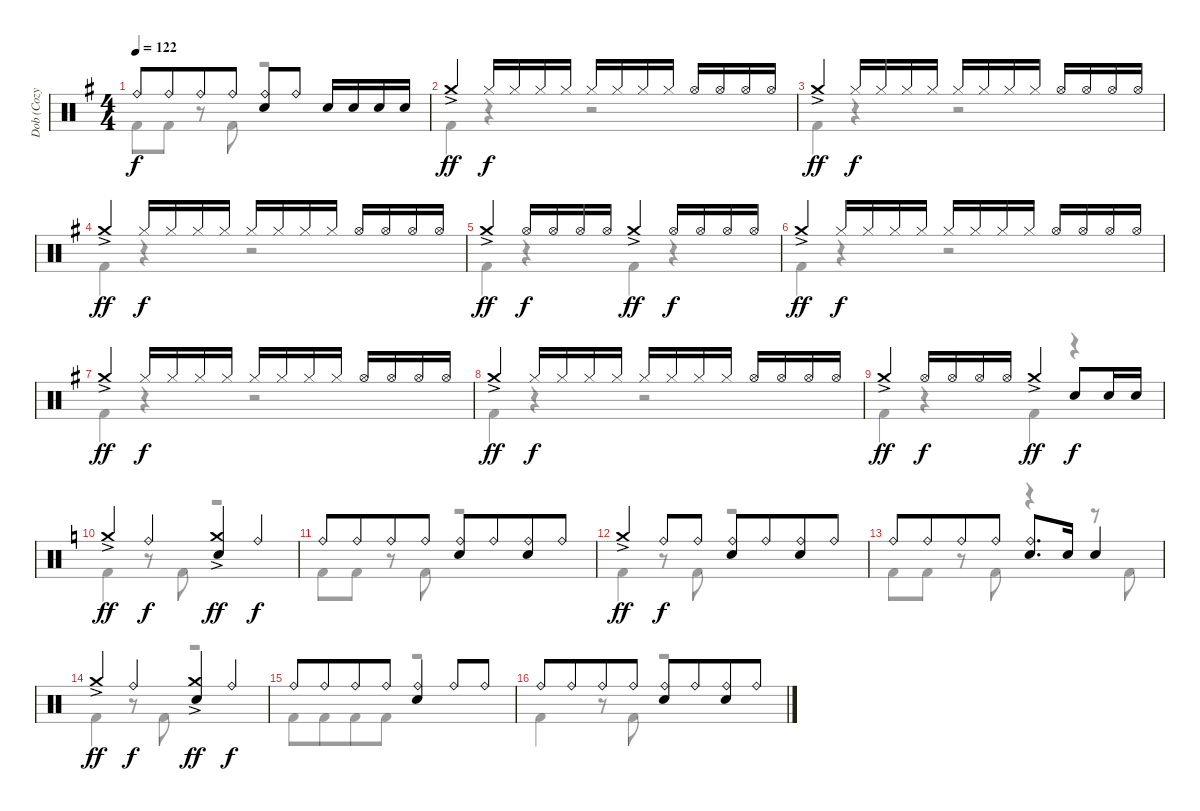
\track ("Dob (Cozy Powell)" "Dob (Cozy ") {instrument percussion}
\staff {score}
\articulation defaults
\voice
\ts (4 4)
\tempo 122
\clef neutral
\ks g "Ride (bell)".8{dy f} "Ride (bell)".8{beam merge} "Ride (bell)".8 "Ride (bell)".8
("Ride (bell)" "Electric Snare (hit)").8 "Ride (bell)".8 "Electric Snare (hit)".16 "Electric Snare (hit)".16 "Electric Snare (hit)".16 "Electric Snare (hit)".16 |
"Crash medium (hit)"{ac}.4{dy ff volume 8} "Hi-Hat (closed)".16{dy f} "Hi-Hat (closed)".16 "Hi-Hat (closed)".16 "Hi-Hat (closed)".16 "Hi-Hat (closed)".16 "Hi-Hat (closed)".16 "Hi-Hat (closed)".16 "Hi-Hat (closed)".16 "Hi-Hat (open)".16 "Hi-Hat (open)".16 "Hi-Hat (open)".16 "Hi-Hat (open)".16 |
"Crash medium (hit)"{ac}.4{dy ff} "Hi-Hat (closed)".16{dy f} "Hi-Hat (closed)".16 "Hi-Hat (closed)".16 "Hi-Hat (closed)".16 "Hi-Hat (closed)".16 "Hi-Hat (closed)".16 "Hi-Hat (closed)".16 "Hi-Hat (closed)".16 "Hi-Hat (open)".16 "Hi-Hat (open)".16 "Hi-Hat (open)".16 "Hi-Hat (open)".16 |
"Crash medium (hit)"{ac}.4{dy ff} "Hi-Hat (closed)".16{dy f} "Hi-Hat (closed)".16 "Hi-Hat (closed)".16 "Hi-Hat (closed)".16 "Hi-Hat (closed)".16 "Hi-Hat (closed)".16 "Hi-Hat (closed)".16 "Hi-Hat (closed)".16 "Hi-Hat (open)".16 "Hi-Hat (open)".16 "Hi-Hat (open)".16 "Hi-Hat (open)".16 |
"Crash medium (hit)"{ac}.4{dy ff} "Hi-Hat (open)".16{dy f} "Hi-Hat (open)".16 "Hi-Hat (open)".16 "Hi-Hat (open)".16 "Crash medium (hit)"{ac}.4{dy ff} "Hi-Hat (open)".16{dy f} "Hi-Hat (open)".16 "Hi-Hat (open)".16 "Hi-Hat (open)".16 |
"Crash medium (hit)"{ac}.4{dy ff} "Hi-Hat (closed)".16{dy f} "Hi-Hat (closed)".16 "Hi-Hat (closed)".16 "Hi-Hat (closed)".16 "Hi-Hat (closed)".16 "Hi-Hat (closed)".16 "Hi-Hat (closed)".16 "Hi-Hat (closed)".16 "Hi-Hat (open)".16 "Hi-Hat (open)".16 "Hi-Hat (open)".16 "Hi-Hat (open)".16 |
"Crash medium (hit)"{ac}.4{dy ff} "Hi-Hat (closed)".16{dy f} "Hi-Hat (closed)".16 "Hi-Hat (closed)".16 "Hi-Hat (closed)".16 "Hi-Hat (closed)".16 "Hi-Hat (closed)".16 "Hi-Hat (closed)".16 "Hi-Hat (closed)".16 "Hi-Hat (open)".16 "Hi-Hat (open)".16 "Hi-Hat (open)".16 "Hi-Hat (open)".16 |
"Crash medium (hit)"{ac}.4{dy ff} "Hi-Hat (closed)".16{dy f} "Hi-Hat (closed)".16 "Hi-Hat (closed)".16 "Hi-Hat (closed)".16 "Hi-Hat (closed)".16 "Hi-Hat (closed)".16 "Hi-Hat (closed)".16 "Hi-Hat (closed)".16 "Hi-Hat (open)".16 "Hi-Hat (open)".16 "Hi-Hat (open)".16 "Hi-Hat (open)".16 |
"Crash medium (hit)"{ac}.4{dy ff} "Hi-Hat (open)".16{dy f} "Hi-Hat (open)".16 "Hi-Hat (open)".16 "Hi-Hat (open)".16 "Crash medium (hit)"{ac}.4{dy ff} "Electric Snare (hit)".8{dy f} "Electric Snare (hit)".16 "Electric Snare (hit)".16 |
\ks c "Crash medium (hit)"{ac}.4{dy ff} "Ride (bell)".4{dy f}
("Crash medium (hit)"{ac} "Electric Snare (hit)").4{dy ff} "Ride (bell)".4{dy f} |
"Ride (bell)".8 "Ride (bell)".8{beam merge} "Ride (bell)".8 "Ride (bell)".8 ("Ride (bell)" "Electric Snare (hit)").8 "Ride (bell)".8{beam merge} ("Ride (bell)" "Electric Snare (hit)").8 "Ride (bell)".8 |
"Crash medium (hit)"{ac}.4{dy ff} "Ride (bell)".8{dy f} "Ride (bell)".8 ("Ride (bell)" "Electric Snare (hit)").8 "Ride (bell)".8{beam merge} ("Ride (bell)" "Electric Snare (hit)").8 "Ride (bell)".8 |
"Ride (bell)".8 "Ride (bell)".8{beam merge} "Ride (bell)".8 "Ride (bell)".8 ("Ride (bell)" "Electric Snare (hit)").8{d} "Electric Snare (hit)".16 "Electric Snare (hit)".4 |
"Crash medium (hit)"{ac}.4{dy ff} "Ride (bell)".4{dy f} ("Crash medium (hit)"{ac} "Electric Snare (hit)").4{dy ff} "Ride (bell)".4{dy f} |
"Ride (bell)".8 "Ride (bell)".8{beam merge} "Ride (bell)".8 "Ride (bell)".8 ("Ride (bell)" "Electric Snare (hit)").4 "Ride (bell)".8 "Ride (bell)".8 |
"Ride (bell)".8 "Ride (bell)".8{beam merge} "Ride (bell)".8 "Ride (bell)".8 ("Ride (bell)" "Electric Snare (hit)").8 "Ride (bell)".8{beam merge} ("Ride (bell)" "Electric Snare (hit)").8 "Ride (bell)".8
\voice
\clef neutral
\ottava regular
\simile none
\ks g "Kick (hit) 2".8{dy f} "Kick (hit) 2".8
r.8 "Kick (hit) 2".8 r.2 |
"Kick (hit) 2".4 r.4 r.2 |
"Kick (hit) 2".4 r.4 r.2 |
"Kick (hit) 2".4 r.4 r.2 |
"Kick (hit) 2".4 r.4 "Kick (hit) 2".4 r.4 |
"Kick (hit) 2".4 r.4 r.2 |
"Kick (hit) 2".4 r.4 r.2 |
"Kick (hit) 2".4 r.4 r.2 |
"Kick (hit) 2".4 r.4 "Kick (hit) 2".4 r.4 |
\ks c "Kick (hit) 2".4
r.8 "Kick (hit) 2".8 r.2 |
"Kick (hit) 2".8 "Kick (hit) 2".8 r.8 "Kick (hit) 2".8 r.2 |
"Kick (hit) 2".4 r.8 "Kick (hit) 2".8 r.2 |
"Kick (hit) 2".8 "Kick (hit) 2".8 r.8 "Kick (hit) 2".8 r.4 r.8 "Kick (hit) 2".8 |
"Kick (hit) 2".4 r.8 "Kick (hit) 2".8 r.2 |
"Kick (hit) 2".8 "Kick (hit) 2".8{beam merge} "Kick (hit) 2".8 "Kick (hit) 2".8 r.2 |
"Kick (hit) 2".4 r.8 "Kick (hit) 2".8 r.2
